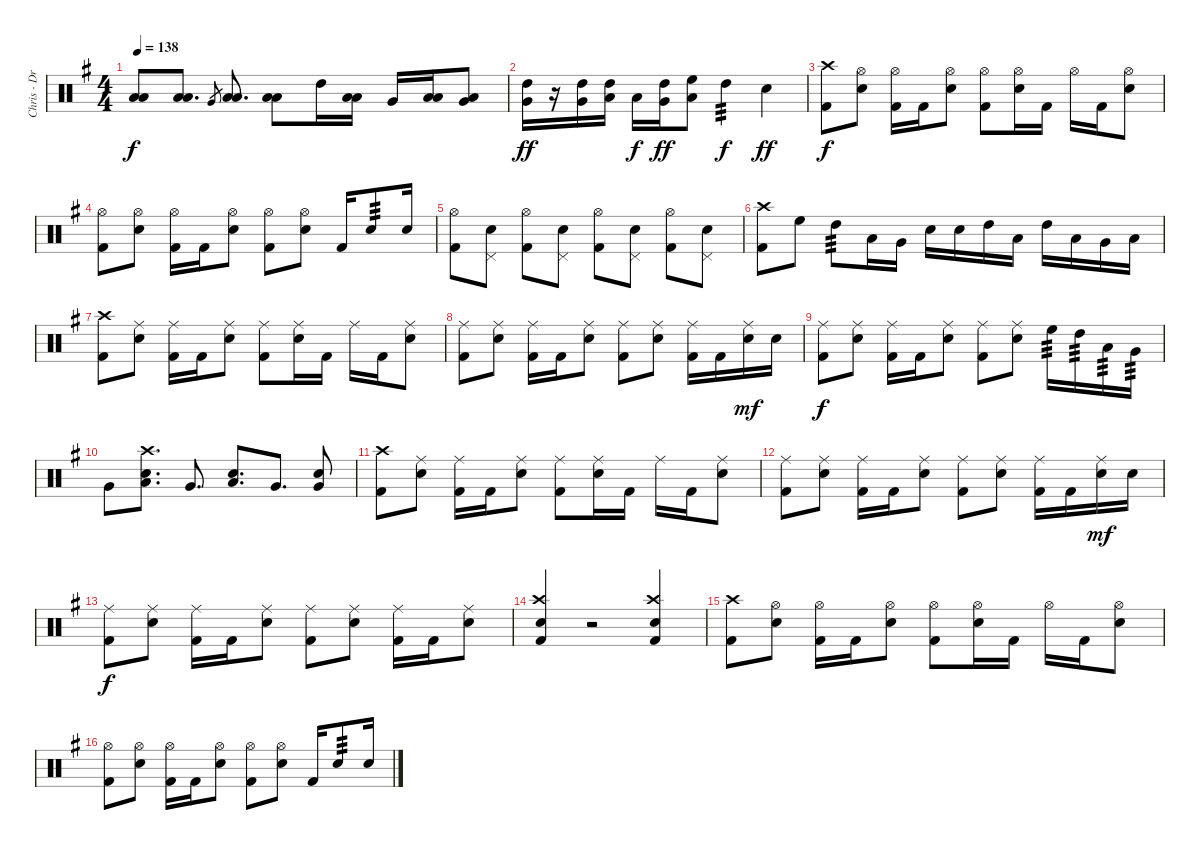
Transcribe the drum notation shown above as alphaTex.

\track ("Chris - Drums" "Chris - Dr") {instrument percussion}
\staff {score}
\articulation defaults
\ts (4 4)
\tempo 138
\clef neutral
\ks g
("Low Tom (hit)" "Low Floor Tom (hit)").8{dy f} ("Low Tom (hit)" "Low Floor Tom (hit)").8{d} "Very Low Tom (hit)".8{gr} ("Low Tom (hit)" "Low Floor Tom (hit)").8{d} ("Low Tom (hit)" "Low Floor Tom (hit)").8 "High Tom (hit)".16 ("Low Tom (hit)" "Low Floor Tom (hit)").16 "Very Low Tom (hit)".16 ("Low Tom (hit)" "Low Floor Tom (hit)").16 ("Very Low Tom (hit)" "Low Floor Tom (hit)").8 |
("High Tom (hit)" "Very Low Tom (hit)").16{dy ff} r.16 ("High Tom (hit)" "Very Low Tom (hit)").16 ("High Tom (hit)" "Low Floor Tom (hit)").16 "Low Floor Tom (hit)".16{dy f} ("High Tom (hit)" "Very Low Tom (hit)").16{dy ff} ("High Floor Tom (hit)" "Low Floor Tom (hit)").8 "High Tom (hit)".4{tp 3 dy f} "Electric Snare (hit)".4{dy ff} |
("Crash high (hit)" "Kick (hit) 2").8{dy f} ("Hi-Hat (open)" "Electric Snare (hit)").8 ("Hi-Hat (open)" "Kick (hit) 2").16 "Kick (hit) 2".16 ("Hi-Hat (open)" "Electric Snare (hit)").8 ("Hi-Hat (open)" "Kick (hit) 2").8 ("Hi-Hat (open)" "Electric Snare (hit)").16 "Kick (hit) 2".16 "Hi-Hat (open)".16 "Kick (hit) 2".16 ("Hi-Hat (open)" "Electric Snare (hit)").8 |
("Hi-Hat (open)" "Kick (hit) 2").8 ("Hi-Hat (open)" "Electric Snare (hit)").8 ("Hi-Hat (open)" "Kick (hit) 2").16 "Kick (hit) 2".16 ("Hi-Hat (open)" "Electric Snare (hit)").8 ("Hi-Hat (open)" "Kick (hit) 2").8 ("Hi-Hat (open)" "Electric Snare (hit)").8 "Kick (hit) 2".16 "Electric Snare (hit)".8{tp 3} "Electric Snare (hit)".16 |
("Hi-Hat (open)" "Kick (hit) 2").8 ("Pedal Hi-Hat (hit)" "Electric Snare (hit)").8 ("Hi-Hat (open)" "Kick (hit) 2").8 ("Pedal Hi-Hat (hit)" "Electric Snare (hit)").8 ("Hi-Hat (open)" "Kick (hit) 2").8 ("Pedal Hi-Hat (hit)" "Electric Snare (hit)").8 ("Hi-Hat (open)" "Kick (hit) 2").8 ("Pedal Hi-Hat (hit)" "Electric Snare (hit)").8 |
("Crash high (hit)" "Kick (hit) 2").8 "High Floor Tom (hit)".8 "High Tom (hit)".8{tp 3} "Low Tom (hit)".16 "Very Low Tom (hit)".16 "Electric Snare (hit)".16 "Electric Snare (hit)".16 "High Tom (hit)".16 "Low Tom (hit)".16 "High Tom (hit)".16 "Low Tom (hit)".16 "Very Low Tom (hit)".16 "Low Floor Tom (hit)".16 |
("Crash high (hit)" "Kick (hit) 2").8 ("Ride (middle)" "Electric Snare (hit)").8 ("Ride (middle)" "Kick (hit) 2").16 "Kick (hit) 2".16 ("Ride (middle)" "Electric Snare (hit)").8 ("Ride (middle)" "Kick (hit) 2").8 ("Ride (middle)" "Electric Snare (hit)").16 "Kick (hit) 2".16 "Ride (middle)".16 "Kick (hit) 2".16 ("Ride (middle)" "Electric Snare (hit)").8 |
("Ride (middle)" "Kick (hit) 2").8 ("Ride (middle)" "Electric Snare (hit)").8 ("Ride (middle)" "Kick (hit) 2").16 "Kick (hit) 2".16 ("Ride (middle)" "Electric Snare (hit)").8 ("Ride (middle)" "Kick (hit) 2").8 ("Ride (middle)" "Electric Snare (hit)").8 ("Ride (middle)" "Kick (hit) 2").16 "Kick (hit) 2".16 ("Ride (middle)" "Electric Snare (hit)").16{dy mf} "Electric Snare (hit)".16 |
("Ride (middle)" "Kick (hit) 2").8{dy f} ("Ride (middle)" "Electric Snare (hit)").8 ("Ride (middle)" "Kick (hit) 2").16 "Kick (hit) 2".16 ("Ride (middle)" "Electric Snare (hit)").8 ("Ride (middle)" "Kick (hit) 2").8 ("Ride (middle)" "Electric Snare (hit)").8 "High Floor Tom (hit)".16{tp 3} "High Tom (hit)".16{tp 3} "Low Tom (hit)".16{tp 3} "Very Low Tom (hit)".16{tp 3} |
"Very Low Tom (hit)".8 ("Crash high (hit)" "Low Tom (hit)" "Electric Snare (hit)").8{d} "Very Low Tom (hit)".8{d} ("Low Tom (hit)" "Electric Snare (hit)").8{d} "Very Low Tom (hit)".8{d} ("Very Low Tom (hit)" "Electric Snare (hit)").8 |
("Crash high (hit)" "Kick (hit) 2").8 ("Ride (middle)" "Electric Snare (hit)").8 ("Ride (middle)" "Kick (hit) 2").16 "Kick (hit) 2".16 ("Ride (middle)" "Electric Snare (hit)").8 ("Ride (middle)" "Kick (hit) 2").8 ("Ride (middle)" "Electric Snare (hit)").16 "Kick (hit) 2".16 "Ride (middle)".16 "Kick (hit) 2".16 ("Ride (middle)" "Electric Snare (hit)").8 |
("Ride (middle)" "Kick (hit) 2").8 ("Ride (middle)" "Electric Snare (hit)").8 ("Ride (middle)" "Kick (hit) 2").16 "Kick (hit) 2".16 ("Ride (middle)" "Electric Snare (hit)").8 ("Ride (middle)" "Kick (hit) 2").8 ("Ride (middle)" "Electric Snare (hit)").8 ("Ride (middle)" "Kick (hit) 2").16 "Kick (hit) 2".16 ("Ride (middle)" "Electric Snare (hit)").16{dy mf} "Electric Snare (hit)".16 |
("Ride (middle)" "Kick (hit) 2").8{dy f} ("Ride (middle)" "Electric Snare (hit)").8 ("Ride (middle)" "Kick (hit) 2").16 "Kick (hit) 2".16 ("Ride (middle)" "Electric Snare (hit)").8 ("Ride (middle)" "Kick (hit) 2").8 ("Ride (middle)" "Electric Snare (hit)").8 ("Ride (middle)" "Kick (hit) 2").16 "Kick (hit) 2".16 ("Ride (middle)" "Electric Snare (hit)").8 |
("Crash high (hit)" "Electric Snare (hit)" "Kick (hit) 2").4 r.2 ("Crash high (hit)" "Electric Snare (hit)" "Kick (hit) 2").4 |
("Crash high (hit)" "Kick (hit) 2").8 ("Hi-Hat (open)" "Electric Snare (hit)").8 ("Hi-Hat (open)" "Kick (hit) 2").16 "Kick (hit) 2".16 ("Hi-Hat (open)" "Electric Snare (hit)").8 ("Hi-Hat (open)" "Kick (hit) 2").8 ("Hi-Hat (open)" "Electric Snare (hit)").16 "Kick (hit) 2".16 "Hi-Hat (open)".16 "Kick (hit) 2".16 ("Hi-Hat (open)" "Electric Snare (hit)").8 |
("Hi-Hat (open)" "Kick (hit) 2").8 ("Hi-Hat (open)" "Electric Snare (hit)").8 ("Hi-Hat (open)" "Kick (hit) 2").16 "Kick (hit) 2".16 ("Hi-Hat (open)" "Electric Snare (hit)").8 ("Hi-Hat (open)" "Kick (hit) 2").8 ("Hi-Hat (open)" "Electric Snare (hit)").8 "Kick (hit) 2".16 "Electric Snare (hit)".8{tp 3} "Electric Snare (hit)".16
